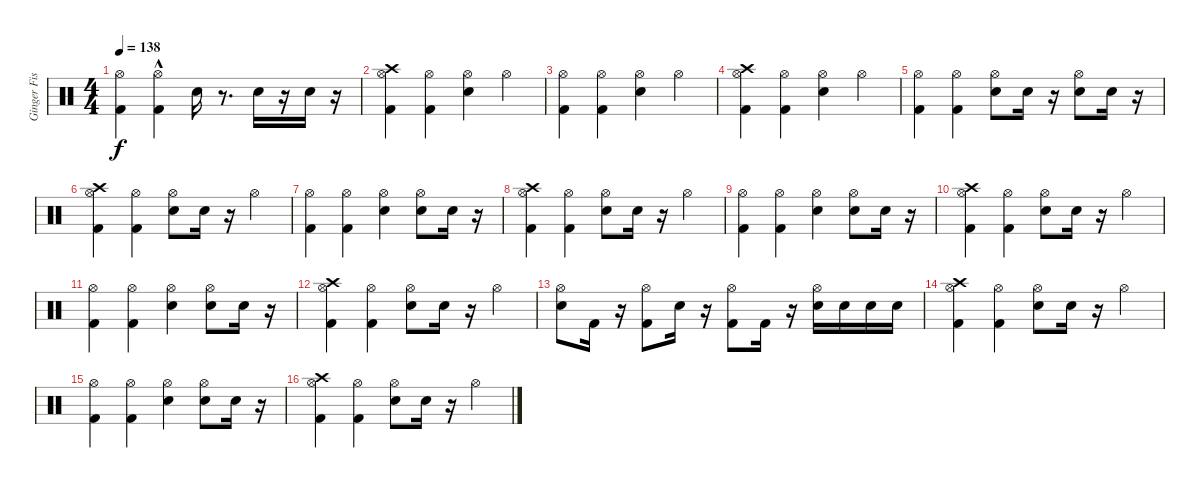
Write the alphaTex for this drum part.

\track ("Ginger Fish (Drums)" "Ginger Fis") {instrument percussion}
\staff {score}
\articulation defaults
\ts (4 4)
\tempo 138
\clef neutral
\ks c
("Hi-Hat (open)" "Kick (hit) 2").4{dy f} ("Hi-Hat (open)"{hac} "Kick (hit) 2").4 "Snare (hit) 2".16 r.8{d} "Snare (hit) 2".16 r.16 "Snare (hit) 2".16 r.16 |
("Hi-Hat (open)" "Kick (hit) 2" "Crash high (hit)").4 ("Kick (hit) 2" "Hi-Hat (open)").4 ("Hi-Hat (open)" "Snare (hit) 2").4 "Hi-Hat (open)".4 |
("Hi-Hat (open)" "Kick (hit) 2").4 ("Hi-Hat (open)" "Kick (hit) 2").4 ("Hi-Hat (open)" "Snare (hit) 2").4 "Hi-Hat (open)".4 |
("Crash high (hit)" "Hi-Hat (open)" "Kick (hit) 2").4 ("Hi-Hat (open)" "Kick (hit) 2").4 ("Hi-Hat (open)" "Snare (hit) 2").4 "Hi-Hat (open)".4 |
("Hi-Hat (open)" "Kick (hit) 2").4 ("Hi-Hat (open)" "Kick (hit) 2").4 ("Hi-Hat (open)" "Snare (hit) 2").8 "Snare (hit) 2".16 r.16 ("Hi-Hat (open)" "Snare (hit) 2").8 "Snare (hit) 2".16 r.16 |
("Kick (hit) 2" "Hi-Hat (open)" "Crash high (hit)").4 ("Kick (hit) 2" "Hi-Hat (open)").4 ("Snare (hit) 2" "Hi-Hat (open)").8 "Snare (hit) 2".16 r.16 "Hi-Hat (open)".4 |
("Kick (hit) 2" "Hi-Hat (open)").4 ("Kick (hit) 2" "Hi-Hat (open)").4 ("Snare (hit) 2" "Hi-Hat (open)").4 ("Snare (hit) 2" "Hi-Hat (open)").8 "Snare (hit) 2".16 r.16 |
("Crash high (hit)" "Hi-Hat (open)" "Kick (hit) 2").4 ("Hi-Hat (open)" "Kick (hit) 2").4 ("Hi-Hat (open)" "Snare (hit) 2").8 "Snare (hit) 2".16 r.16 "Hi-Hat (open)".4 |
("Hi-Hat (open)" "Kick (hit) 2").4 ("Hi-Hat (open)" "Kick (hit) 2").4 ("Hi-Hat (open)" "Snare (hit) 2").4 ("Hi-Hat (open)" "Snare (hit) 2").8 "Snare (hit) 2".16 r.16 |
("Hi-Hat (open)" "Crash high (hit)" "Kick (hit) 2").4 ("Hi-Hat (open)" "Kick (hit) 2").4 ("Hi-Hat (open)" "Snare (hit) 2").8 "Snare (hit) 2".16 r.16 "Hi-Hat (open)".4 |
("Hi-Hat (open)" "Kick (hit) 2").4 ("Hi-Hat (open)" "Kick (hit) 2").4 ("Hi-Hat (open)" "Snare (hit) 2").4 ("Hi-Hat (open)" "Snare (hit) 2").8 "Snare (hit) 2".16 r.16 |
("Crash high (hit)" "Hi-Hat (open)" "Kick (hit) 2").4 ("Hi-Hat (open)" "Kick (hit) 2").4 ("Hi-Hat (open)" "Snare (hit) 2").8 "Snare (hit) 2".16 r.16 "Hi-Hat (open)".4 |
("Hi-Hat (open)" "Snare (hit) 2").8 "Kick (hit) 2".16 r.16 ("Hi-Hat (open)" "Kick (hit) 2").8 "Snare (hit) 2".16 r.16 ("Hi-Hat (open)" "Kick (hit) 2").8 "Kick (hit) 2".16 r.16 ("Hi-Hat (open)" "Snare (hit) 2").16 "Snare (hit) 2".16 "Snare (hit) 2".16 "Snare (hit) 2".16 |
("Kick (hit) 2" "Hi-Hat (open)" "Crash high (hit)").4 ("Kick (hit) 2" "Hi-Hat (open)").4 ("Snare (hit) 2" "Hi-Hat (open)").8 "Snare (hit) 2".16 r.16 "Hi-Hat (open)".4 |
("Kick (hit) 2" "Hi-Hat (open)").4 ("Kick (hit) 2" "Hi-Hat (open)").4 ("Snare (hit) 2" "Hi-Hat (open)").4 ("Snare (hit) 2" "Hi-Hat (open)").8 "Snare (hit) 2".16 r.16 |
("Crash high (hit)" "Hi-Hat (open)" "Kick (hit) 2").4 ("Hi-Hat (open)" "Kick (hit) 2").4 ("Hi-Hat (open)" "Snare (hit) 2").8 "Snare (hit) 2".16 r.16 "Hi-Hat (open)".4
